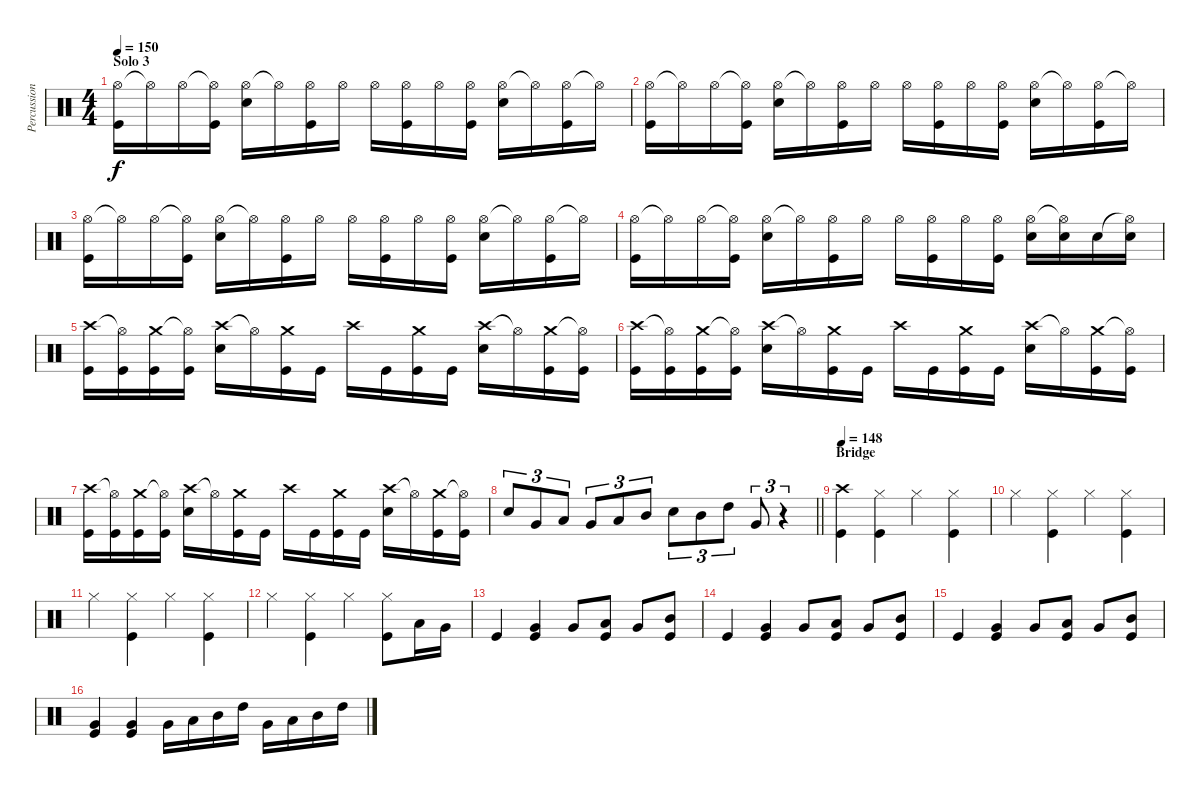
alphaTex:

\track ("Percussion" "Percussion") {instrument percussion}
\staff {score}
\articulation defaults
\ts (4 4)
\section ("" "Solo 3")
\tempo 150
\clef neutral
\ks c
("Hi-Hat (open)" "Kick (hit)").16{dy f} "Hi-Hat (open)"{t}.16 "Hi-Hat (open)".16 ("Hi-Hat (open)"{t} "Kick (hit)").16 ("Hi-Hat (open)" "Snare (hit) 2").16 "Hi-Hat (open)"{t}.16 ("Hi-Hat (open)" "Kick (hit)").16 "Hi-Hat (open)".16 "Hi-Hat (open)".16 ("Hi-Hat (open)" "Kick (hit)").16 "Hi-Hat (open)".16 ("Hi-Hat (open)" "Kick (hit)").16 ("Hi-Hat (open)" "Snare (hit) 2").16 "Hi-Hat (open)"{t}.16 ("Hi-Hat (open)" "Kick (hit)").16 "Hi-Hat (open)"{t}.16 |
("Hi-Hat (open)" "Kick (hit)").16 "Hi-Hat (open)"{t}.16 "Hi-Hat (open)".16 ("Hi-Hat (open)"{t} "Kick (hit)").16 ("Hi-Hat (open)" "Snare (hit) 2").16 "Hi-Hat (open)"{t}.16 ("Hi-Hat (open)" "Kick (hit)").16 "Hi-Hat (open)".16 "Hi-Hat (open)".16 ("Hi-Hat (open)" "Kick (hit)").16 "Hi-Hat (open)".16 ("Hi-Hat (open)" "Kick (hit)").16 ("Hi-Hat (open)" "Snare (hit) 2").16 "Hi-Hat (open)"{t}.16 ("Hi-Hat (open)" "Kick (hit)").16 "Hi-Hat (open)"{t}.16 |
("Hi-Hat (open)" "Kick (hit)").16 "Hi-Hat (open)"{t}.16 "Hi-Hat (open)".16 ("Hi-Hat (open)"{t} "Kick (hit)").16 ("Hi-Hat (open)" "Snare (hit) 2").16 "Hi-Hat (open)"{t}.16 ("Hi-Hat (open)" "Kick (hit)").16 "Hi-Hat (open)".16 "Hi-Hat (open)".16 ("Hi-Hat (open)" "Kick (hit)").16 "Hi-Hat (open)".16 ("Hi-Hat (open)" "Kick (hit)").16 ("Hi-Hat (open)" "Snare (hit) 2").16 "Hi-Hat (open)"{t}.16 ("Hi-Hat (open)" "Kick (hit)").16 "Hi-Hat (open)"{t}.16 |
("Hi-Hat (open)" "Kick (hit)").16 "Hi-Hat (open)"{t}.16 "Hi-Hat (open)".16 ("Hi-Hat (open)"{t} "Kick (hit)").16 ("Hi-Hat (open)" "Snare (hit) 2").16 "Hi-Hat (open)"{t}.16 ("Hi-Hat (open)" "Kick (hit)").16 "Hi-Hat (open)".16 "Hi-Hat (open)".16 ("Hi-Hat (open)" "Kick (hit)").16 "Hi-Hat (open)".16 ("Hi-Hat (open)" "Kick (hit)").16 ("Hi-Hat (open)" "Snare (hit) 2").16 ("Hi-Hat (open)"{t} "Snare (hit) 2").16 "Snare (hit) 2".16 ("Hi-Hat (open)"{t} "Snare (hit) 2").16 |
("Crash high (hit)" "Kick (hit)").16 ("Hi-Hat (open)"{t} "Kick (hit)").16 ("Crash medium (hit)" "Kick (hit)").16 ("Hi-Hat (open)"{t} "Kick (hit)").16 ("Crash high (hit)" "Snare (hit) 2").16 "Hi-Hat (open)"{t}.16 ("Crash medium (hit)" "Kick (hit)").16 "Kick (hit)".16 "Crash high (hit)".16 "Kick (hit)".16 ("Crash medium (hit)" "Kick (hit)").16 "Kick (hit)".16 ("Crash high (hit)" "Snare (hit) 2").16 "Hi-Hat (open)"{t}.16 ("Crash medium (hit)" "Kick (hit)").16 ("Hi-Hat (open)"{t} "Kick (hit)").16 |
("Crash high (hit)" "Kick (hit)").16 ("Hi-Hat (open)"{t} "Kick (hit)").16 ("Crash medium (hit)" "Kick (hit)").16 ("Hi-Hat (open)"{t} "Kick (hit)").16 ("Crash high (hit)" "Snare (hit) 2").16 "Hi-Hat (open)"{t}.16 ("Crash medium (hit)" "Kick (hit)").16 "Kick (hit)".16 "Crash high (hit)".16 "Kick (hit)".16 ("Crash medium (hit)" "Kick (hit)").16 "Kick (hit)".16 ("Crash high (hit)" "Snare (hit) 2").16 "Hi-Hat (open)"{t}.16 ("Crash medium (hit)" "Kick (hit)").16 ("Hi-Hat (open)"{t} "Kick (hit)").16 |
("Crash high (hit)" "Kick (hit)").16 ("Hi-Hat (open)"{t} "Kick (hit)").16 ("Crash medium (hit)" "Kick (hit)").16 ("Hi-Hat (open)"{t} "Kick (hit)").16 ("Crash high (hit)" "Snare (hit) 2").16 "Hi-Hat (open)"{t}.16 ("Crash medium (hit)" "Kick (hit)").16 "Kick (hit)".16 "Crash high (hit)".16 "Kick (hit)".16 ("Crash medium (hit)" "Kick (hit)").16 "Kick (hit)".16 ("Crash high (hit)" "Snare (hit) 2").16 "Hi-Hat (open)"{t}.16 ("Crash medium (hit)" "Kick (hit)").16 ("Hi-Hat (open)"{t} "Kick (hit)").16 |
\barLineRight lightlight "Snare (hit) 2".8{tu (3 2)} "Very Low Tom (hit)".8{tu (3 2)} "Low Tom (hit)".8{tu (3 2)} "Very Low Tom (hit)".8{tu (3 2)} "Low Tom (hit)".8{tu (3 2)} "Mid Tom (hit)".8{tu (3 2)} "Snare (hit) 2".8{tu (3 2)} "Mid Tom (hit)".8{tu (3 2)} "High Tom (hit)".8{tu (3 2)} "Very Low Tom (hit)".8{tu (3 2)}
r.4{tu (3 2)} |
\section ("" "Bridge")
\tempo 148
("Crash high (hit)" "Kick (hit)").4 ("Hi-Hat (closed)" "Kick (hit)").4 "Hi-Hat (closed)".4 ("Hi-Hat (closed)" "Kick (hit)").4 |
"Hi-Hat (closed)".4 ("Hi-Hat (closed)" "Kick (hit)").4 "Hi-Hat (closed)".4 ("Hi-Hat (closed)" "Kick (hit)").4 |
"Hi-Hat (closed)".4 ("Hi-Hat (closed)" "Kick (hit)").4 "Hi-Hat (closed)".4 ("Hi-Hat (closed)" "Kick (hit)").4 |
"Hi-Hat (closed)".4 ("Hi-Hat (closed)" "Kick (hit)").4 "Hi-Hat (closed)".4 ("Hi-Hat (closed)" "Kick (hit)").8 "Low Floor Tom (hit)".16 "Very Low Tom (hit)".16 |
"Kick (hit)".4 ("Very Low Tom (hit)" "Kick (hit)").4 "Very Low Tom (hit)".8 ("Low Tom (hit)" "Kick (hit)").8 "Very Low Tom (hit)".8 ("Mid Tom (hit)" "Kick (hit)").8 |
"Kick (hit)".4 ("Very Low Tom (hit)" "Kick (hit)").4 "Very Low Tom (hit)".8 ("Low Tom (hit)" "Kick (hit)").8 "Very Low Tom (hit)".8 ("Mid Tom (hit)" "Kick (hit)").8 |
"Kick (hit)".4 ("Very Low Tom (hit)" "Kick (hit)").4 "Very Low Tom (hit)".8 ("Low Tom (hit)" "Kick (hit)").8 "Very Low Tom (hit)".8 ("Mid Tom (hit)" "Kick (hit)").8 |
("Very Low Tom (hit)" "Kick (hit)").4 ("Very Low Tom (hit)" "Kick (hit)").4 "Very Low Tom (hit)".16 "Low Tom (hit)".16 "Mid Tom (hit)".16 "High Tom (hit)".16 "Very Low Tom (hit)".16 "Low Tom (hit)".16 "Mid Tom (hit)".16 "High Tom (hit)".16
